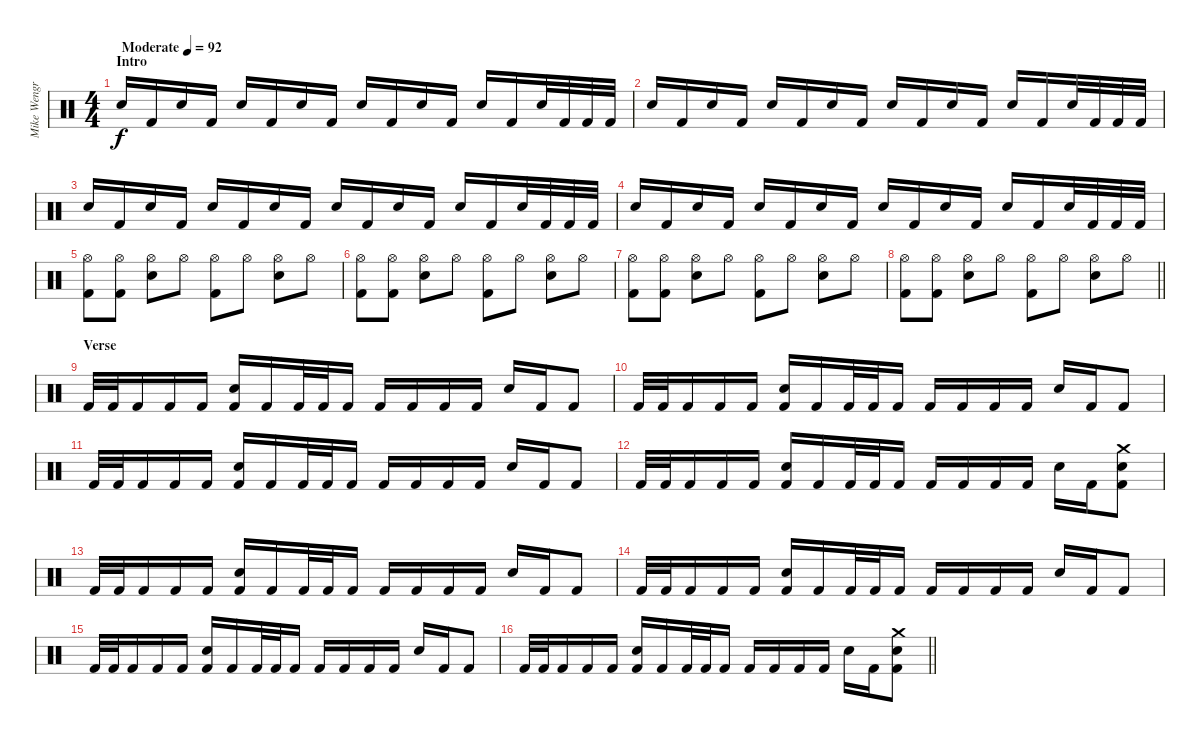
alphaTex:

\track ("Mike Wengren" "Mike Wengr") {instrument percussion}
\staff {score}
\articulation defaults
\ts (4 4)
\section ("" "Intro")
\tempo (92 "Moderate")
\clef neutral
\ks c "Electric Snare (hit)".16{dy f volume 16} "Kick (hit) 2".16 "Electric Snare (hit)".16 "Kick (hit) 2".16 "Electric Snare (hit)".16 "Kick (hit) 2".16 "Electric Snare (hit)".16 "Kick (hit) 2".16 "Electric Snare (hit)".16 "Kick (hit) 2".16 "Electric Snare (hit)".16 "Kick (hit) 2".16 "Electric Snare (hit)".16 "Kick (hit) 2".16 "Electric Snare (hit)".32 "Kick (hit) 2".32 "Kick (hit) 2".32 "Kick (hit) 2".32
|
"Electric Snare (hit)".16{volume 16} "Kick (hit) 2".16 "Electric Snare (hit)".16 "Kick (hit) 2".16 "Electric Snare (hit)".16 "Kick (hit) 2".16 "Electric Snare (hit)".16 "Kick (hit) 2".16 "Electric Snare (hit)".16 "Kick (hit) 2".16 "Electric Snare (hit)".16 "Kick (hit) 2".16 "Electric Snare (hit)".16 "Kick (hit) 2".16 "Electric Snare (hit)".32 "Kick (hit) 2".32 "Kick (hit) 2".32 "Kick (hit) 2".32 |
"Electric Snare (hit)".16{volume 16} "Kick (hit) 2".16 "Electric Snare (hit)".16 "Kick (hit) 2".16 "Electric Snare (hit)".16 "Kick (hit) 2".16 "Electric Snare (hit)".16 "Kick (hit) 2".16 "Electric Snare (hit)".16 "Kick (hit) 2".16 "Electric Snare (hit)".16 "Kick (hit) 2".16 "Electric Snare (hit)".16 "Kick (hit) 2".16 "Electric Snare (hit)".32 "Kick (hit) 2".32 "Kick (hit) 2".32 "Kick (hit) 2".32 |
"Electric Snare (hit)".16{volume 16} "Kick (hit) 2".16 "Electric Snare (hit)".16 "Kick (hit) 2".16 "Electric Snare (hit)".16 "Kick (hit) 2".16 "Electric Snare (hit)".16 "Kick (hit) 2".16 "Electric Snare (hit)".16 "Kick (hit) 2".16 "Electric Snare (hit)".16 "Kick (hit) 2".16 "Electric Snare (hit)".16 "Kick (hit) 2".16 "Electric Snare (hit)".32 "Kick (hit) 2".32 "Kick (hit) 2".32 "Kick (hit) 2".32 |
("Kick (hit) 2" "Hi-Hat (open)").8 ("Kick (hit) 2" "Hi-Hat (open)").8 ("Electric Snare (hit)" "Hi-Hat (open)").8 "Hi-Hat (open)".8 ("Kick (hit) 2" "Hi-Hat (open)").8 "Hi-Hat (open)".8 ("Electric Snare (hit)" "Hi-Hat (open)").8 "Hi-Hat (open)".8 |
("Kick (hit) 2" "Hi-Hat (open)").8 ("Kick (hit) 2" "Hi-Hat (open)").8 ("Electric Snare (hit)" "Hi-Hat (open)").8 "Hi-Hat (open)".8 ("Kick (hit) 2" "Hi-Hat (open)").8 "Hi-Hat (open)".8 ("Electric Snare (hit)" "Hi-Hat (open)").8 "Hi-Hat (open)".8 |
("Kick (hit) 2" "Hi-Hat (open)").8 ("Kick (hit) 2" "Hi-Hat (open)").8 ("Electric Snare (hit)" "Hi-Hat (open)").8 "Hi-Hat (open)".8 ("Kick (hit) 2" "Hi-Hat (open)").8 "Hi-Hat (open)".8 ("Electric Snare (hit)" "Hi-Hat (open)").8 "Hi-Hat (open)".8 |
\barLineRight lightlight
("Kick (hit) 2" "Hi-Hat (open)").8 ("Kick (hit) 2" "Hi-Hat (open)").8 ("Electric Snare (hit)" "Hi-Hat (open)").8 "Hi-Hat (open)".8 ("Kick (hit) 2" "Hi-Hat (open)").8 "Hi-Hat (open)".8 ("Electric Snare (hit)" "Hi-Hat (open)").8 "Hi-Hat (open)".8 |
\section ("" "Verse")
"Kick (hit) 2".32 "Kick (hit) 2".32 "Kick (hit) 2".16 "Kick (hit) 2".16 "Kick (hit) 2".16 ("Kick (hit) 2" "Electric Snare (hit)").16 "Kick (hit) 2".16 "Kick (hit) 2".32 "Kick (hit) 2".32 "Kick (hit) 2".16 "Kick (hit) 2".16 "Kick (hit) 2".16 "Kick (hit) 2".16 "Kick (hit) 2".16 "Electric Snare (hit)".16 "Kick (hit) 2".16 "Kick (hit) 2".8 |
"Kick (hit) 2".32 "Kick (hit) 2".32 "Kick (hit) 2".16 "Kick (hit) 2".16 "Kick (hit) 2".16 ("Kick (hit) 2" "Electric Snare (hit)").16 "Kick (hit) 2".16 "Kick (hit) 2".32 "Kick (hit) 2".32 "Kick (hit) 2".16 "Kick (hit) 2".16 "Kick (hit) 2".16 "Kick (hit) 2".16 "Kick (hit) 2".16 "Electric Snare (hit)".16 "Kick (hit) 2".16 "Kick (hit) 2".8 |
"Kick (hit) 2".32 "Kick (hit) 2".32 "Kick (hit) 2".16 "Kick (hit) 2".16 "Kick (hit) 2".16 ("Kick (hit) 2" "Electric Snare (hit)").16 "Kick (hit) 2".16 "Kick (hit) 2".32 "Kick (hit) 2".32 "Kick (hit) 2".16 "Kick (hit) 2".16 "Kick (hit) 2".16 "Kick (hit) 2".16 "Kick (hit) 2".16 "Electric Snare (hit)".16 "Kick (hit) 2".16 "Kick (hit) 2".8 |
"Kick (hit) 2".32 "Kick (hit) 2".32 "Kick (hit) 2".16 "Kick (hit) 2".16 "Kick (hit) 2".16 ("Kick (hit) 2" "Electric Snare (hit)").16 "Kick (hit) 2".16 "Kick (hit) 2".32 "Kick (hit) 2".32 "Kick (hit) 2".16 "Kick (hit) 2".16 "Kick (hit) 2".16 "Kick (hit) 2".16 "Kick (hit) 2".16 "Electric Snare (hit)".16 "Kick (hit) 2".16 ("Kick (hit) 2" "Electric Snare (hit)" "Crash medium (hit)").8 |
"Kick (hit) 2".32 "Kick (hit) 2".32 "Kick (hit) 2".16 "Kick (hit) 2".16 "Kick (hit) 2".16 ("Kick (hit) 2" "Electric Snare (hit)").16 "Kick (hit) 2".16 "Kick (hit) 2".32 "Kick (hit) 2".32 "Kick (hit) 2".16 "Kick (hit) 2".16 "Kick (hit) 2".16 "Kick (hit) 2".16 "Kick (hit) 2".16 "Electric Snare (hit)".16 "Kick (hit) 2".16 "Kick (hit) 2".8 |
"Kick (hit) 2".32 "Kick (hit) 2".32 "Kick (hit) 2".16 "Kick (hit) 2".16 "Kick (hit) 2".16 ("Kick (hit) 2" "Electric Snare (hit)").16 "Kick (hit) 2".16 "Kick (hit) 2".32 "Kick (hit) 2".32 "Kick (hit) 2".16 "Kick (hit) 2".16 "Kick (hit) 2".16 "Kick (hit) 2".16 "Kick (hit) 2".16 "Electric Snare (hit)".16 "Kick (hit) 2".16 "Kick (hit) 2".8 |
"Kick (hit) 2".32 "Kick (hit) 2".32 "Kick (hit) 2".16 "Kick (hit) 2".16 "Kick (hit) 2".16 ("Kick (hit) 2" "Electric Snare (hit)").16 "Kick (hit) 2".16 "Kick (hit) 2".32 "Kick (hit) 2".32 "Kick (hit) 2".16 "Kick (hit) 2".16 "Kick (hit) 2".16 "Kick (hit) 2".16 "Kick (hit) 2".16 "Electric Snare (hit)".16 "Kick (hit) 2".16 "Kick (hit) 2".8 |
\barLineRight lightlight "Kick (hit) 2".32 "Kick (hit) 2".32 "Kick (hit) 2".16 "Kick (hit) 2".16 "Kick (hit) 2".16
("Kick (hit) 2" "Electric Snare (hit)").16 "Kick (hit) 2".16 "Kick (hit) 2".32 "Kick (hit) 2".32 "Kick (hit) 2".16 "Kick (hit) 2".16 "Kick (hit) 2".16 "Kick (hit) 2".16 "Kick (hit) 2".16 "Electric Snare (hit)".16 "Kick (hit) 2".16 ("Kick (hit) 2" "Electric Snare (hit)" "Crash medium (hit)").8
